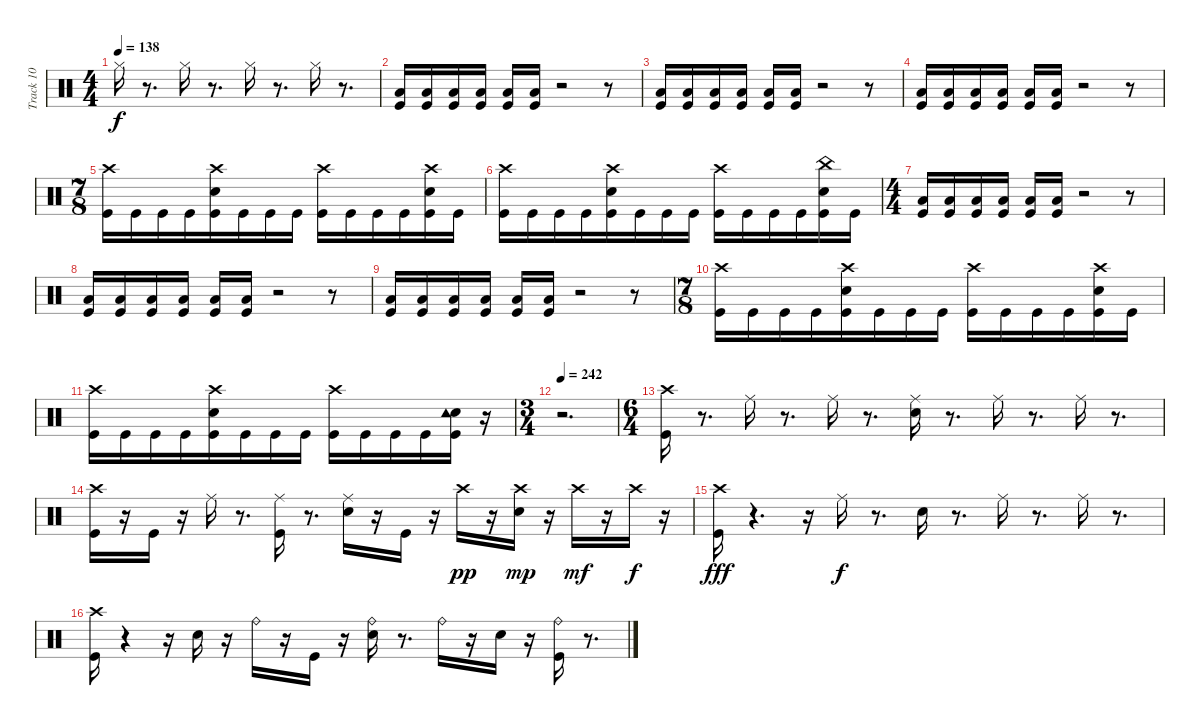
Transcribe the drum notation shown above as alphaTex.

\track ("Track 10" "Track 10") {instrument percussion}
\staff {score}
\articulation defaults
\ts (4 4)
\tempo 138
\clef neutral
\ks c "Hi-Hat (closed)".16{dy f}
r.8{d} "Hi-Hat (closed)".16 r.8{d} "Hi-Hat (closed)".16 r.8{d} "Hi-Hat (closed)".16 r.8{d} |
("Kick (hit)" "Low Floor Tom (hit)").16 ("Kick (hit)" "Low Floor Tom (hit)").16 ("Kick (hit)" "Low Floor Tom (hit)").16 ("Kick (hit)" "Low Floor Tom (hit)").16 ("Kick (hit)" "Low Floor Tom (hit)").16 ("Kick (hit)" "Low Floor Tom (hit)").16 r.2 r.8 |
("Kick (hit)" "Low Floor Tom (hit)").16 ("Kick (hit)" "Low Floor Tom (hit)").16 ("Kick (hit)" "Low Floor Tom (hit)").16 ("Kick (hit)" "Low Floor Tom (hit)").16 ("Kick (hit)" "Low Floor Tom (hit)").16 ("Kick (hit)" "Low Floor Tom (hit)").16 r.2 r.8 |
("Kick (hit)" "Low Floor Tom (hit)").16 ("Kick (hit)" "Low Floor Tom (hit)").16 ("Kick (hit)" "Low Floor Tom (hit)").16 ("Kick (hit)" "Low Floor Tom (hit)").16 ("Kick (hit)" "Low Floor Tom (hit)").16 ("Kick (hit)" "Low Floor Tom (hit)").16 r.2 r.8 |
\ts (7 8)
("Kick (hit)" "Crash high (hit)").16 "Kick (hit)".16 "Kick (hit)".16 "Kick (hit)".16 ("Kick (hit)" "Snare (hit) 2" "Crash high (hit)").16 "Kick (hit)".16 "Kick (hit)".16 "Kick (hit)".16 ("Kick (hit)" "Crash high (hit)").16 "Kick (hit)".16 "Kick (hit)".16 "Kick (hit)".16 ("Kick (hit)" "Snare (hit) 2" "Crash high (hit)").16 "Kick (hit)".16 |
("Kick (hit)" "Crash high (hit)").16 "Kick (hit)".16 "Kick (hit)".16 "Kick (hit)".16 ("Kick (hit)" "Snare (hit) 2" "Crash high (hit)").16 "Kick (hit)".16 "Kick (hit)".16 "Kick (hit)".16 ("Kick (hit)" "Crash high (hit)").16 "Kick (hit)".16 "Kick (hit)".16 "Kick (hit)".16 ("Kick (hit)" "Snare (hit) 2" "China (hit)").16 "Kick (hit)".16 |
\ts (4 4)
("Kick (hit)" "Low Floor Tom (hit)").16 ("Kick (hit)" "Low Floor Tom (hit)").16 ("Kick (hit)" "Low Floor Tom (hit)").16 ("Kick (hit)" "Low Floor Tom (hit)").16 ("Kick (hit)" "Low Floor Tom (hit)").16 ("Kick (hit)" "Low Floor Tom (hit)").16 r.2 r.8 |
("Kick (hit)" "Low Floor Tom (hit)").16 ("Kick (hit)" "Low Floor Tom (hit)").16 ("Kick (hit)" "Low Floor Tom (hit)").16 ("Kick (hit)" "Low Floor Tom (hit)").16 ("Kick (hit)" "Low Floor Tom (hit)").16 ("Kick (hit)" "Low Floor Tom (hit)").16 r.2 r.8 |
("Kick (hit)" "Low Floor Tom (hit)").16 ("Kick (hit)" "Low Floor Tom (hit)").16 ("Kick (hit)" "Low Floor Tom (hit)").16 ("Kick (hit)" "Low Floor Tom (hit)").16 ("Kick (hit)" "Low Floor Tom (hit)").16 ("Kick (hit)" "Low Floor Tom (hit)").16 r.2 r.8 |
\ts (7 8)
("Kick (hit)" "Crash high (hit)").16 "Kick (hit)".16 "Kick (hit)".16 "Kick (hit)".16 ("Kick (hit)" "Snare (hit) 2" "Crash high (hit)").16 "Kick (hit)".16 "Kick (hit)".16 "Kick (hit)".16 ("Kick (hit)" "Crash high (hit)").16 "Kick (hit)".16 "Kick (hit)".16 "Kick (hit)".16 ("Kick (hit)" "Snare (hit) 2" "Crash high (hit)").16 "Kick (hit)".16 |
("Kick (hit)" "Crash high (hit)").16 "Kick (hit)".16 "Kick (hit)".16 "Kick (hit)".16 ("Kick (hit)" "Snare (hit) 2" "Crash high (hit)").16 "Kick (hit)".16 "Kick (hit)".16 "Kick (hit)".16 ("Kick (hit)" "Crash high (hit)").16 "Kick (hit)".16 "Kick (hit)".16 "Kick (hit)".16 ("Kick (hit)" "Snare (hit) 2" "Tambourine (hit)").16 r.16 |
\ts (3 4)
\tempo 242
r.2{d} |
\ts (6 4)
("Kick (hit)" "Crash high (hit)").16 r.8{d} "Ride (middle)".16 r.8{d} "Ride (middle)".16 r.8{d} ("Snare (hit) 2" "Ride (middle)").16 r.8{d} "Ride (middle)".16 r.8{d} "Ride (middle)".16 r.8{d} |
("Kick (hit)" "Crash high (hit)").16 r.16 "Kick (hit)".16 r.16 "Ride (middle)".16 r.8{d} ("Kick (hit)" "Ride (middle)").16 r.8{d} ("Snare (hit) 2" "Ride (middle)").16 r.16 "Kick (hit)".16 r.16 "Crash high (hit)".16{dy pp} r.16 ("Snare (hit) 2" "Crash high (hit)").16{dy mp} r.16 "Crash high (hit)".16{dy mf} r.16 "Crash high (hit)".16{dy f} r.16 |
("Kick (hit)" "Crash high (hit)").16{dy fff} r.4{d} r.16 "Ride (middle)".16{dy f} r.8{d} "Snare (hit) 2".16 r.8{d} "Ride (middle)".16 r.8{d} "Ride (middle)".16 r.8{d} |
("Kick (hit)" "Crash high (hit)").16 r.4 r.16 "Snare (hit) 2".16 r.16 "Ride (bell)".16 r.16 "Kick (hit)".16 r.16 ("Snare (hit) 2" "Ride (bell)").16 r.8{d} "Ride (bell)".16 r.16 "Snare (hit) 2".16 r.16 ("Kick (hit)" "Ride (bell)").16 r.8{d}
